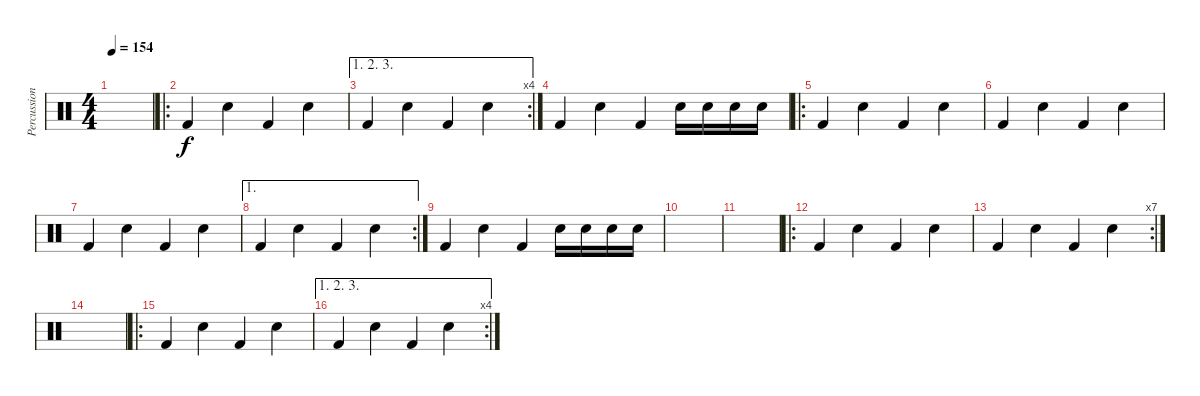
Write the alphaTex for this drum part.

\track ("Percussions" "Percussion") {instrument percussion}
\staff {score}
\articulation defaults
\ts (4 4)
\tempo 154
\clef neutral
\ks c
|
\ro "Kick (hit) 2".4 "Electric Snare (hit)".4 "Kick (hit) 2".4 "Electric Snare (hit)".4
|
\ae (1 2 3)
\rc 4 "Kick (hit) 2".4 "Electric Snare (hit)".4 "Kick (hit) 2".4 "Electric Snare (hit)".4
|
"Kick (hit) 2".4 "Electric Snare (hit)".4 "Kick (hit) 2".4 "Electric Snare (hit)".16 "Electric Snare (hit)".16 "Electric Snare (hit)".16 "Electric Snare (hit)".16 |
\ro "Kick (hit) 2".4 "Electric Snare (hit)".4 "Kick (hit) 2".4 "Electric Snare (hit)".4
|
"Kick (hit) 2".4 "Electric Snare (hit)".4 "Kick (hit) 2".4 "Electric Snare (hit)".4 |
"Kick (hit) 2".4 "Electric Snare (hit)".4 "Kick (hit) 2".4 "Electric Snare (hit)".4 |
\ae 1
\rc 2 "Kick (hit) 2".4 "Electric Snare (hit)".4 "Kick (hit) 2".4 "Electric Snare (hit)".4
|
"Kick (hit) 2".4 "Electric Snare (hit)".4 "Kick (hit) 2".4 "Electric Snare (hit)".16 "Electric Snare (hit)".16 "Electric Snare (hit)".16 "Electric Snare (hit)".16 |
|
|
\ro "Kick (hit) 2".4 "Electric Snare (hit)".4 "Kick (hit) 2".4 "Electric Snare (hit)".4
|
\rc 7 "Kick (hit) 2".4 "Electric Snare (hit)".4 "Kick (hit) 2".4 "Electric Snare (hit)".4
|
|
\ro "Kick (hit) 2".4 "Electric Snare (hit)".4 "Kick (hit) 2".4 "Electric Snare (hit)".4
|
\ae (1 2 3)
\rc 4 "Kick (hit) 2".4 "Electric Snare (hit)".4 "Kick (hit) 2".4 "Electric Snare (hit)".4
